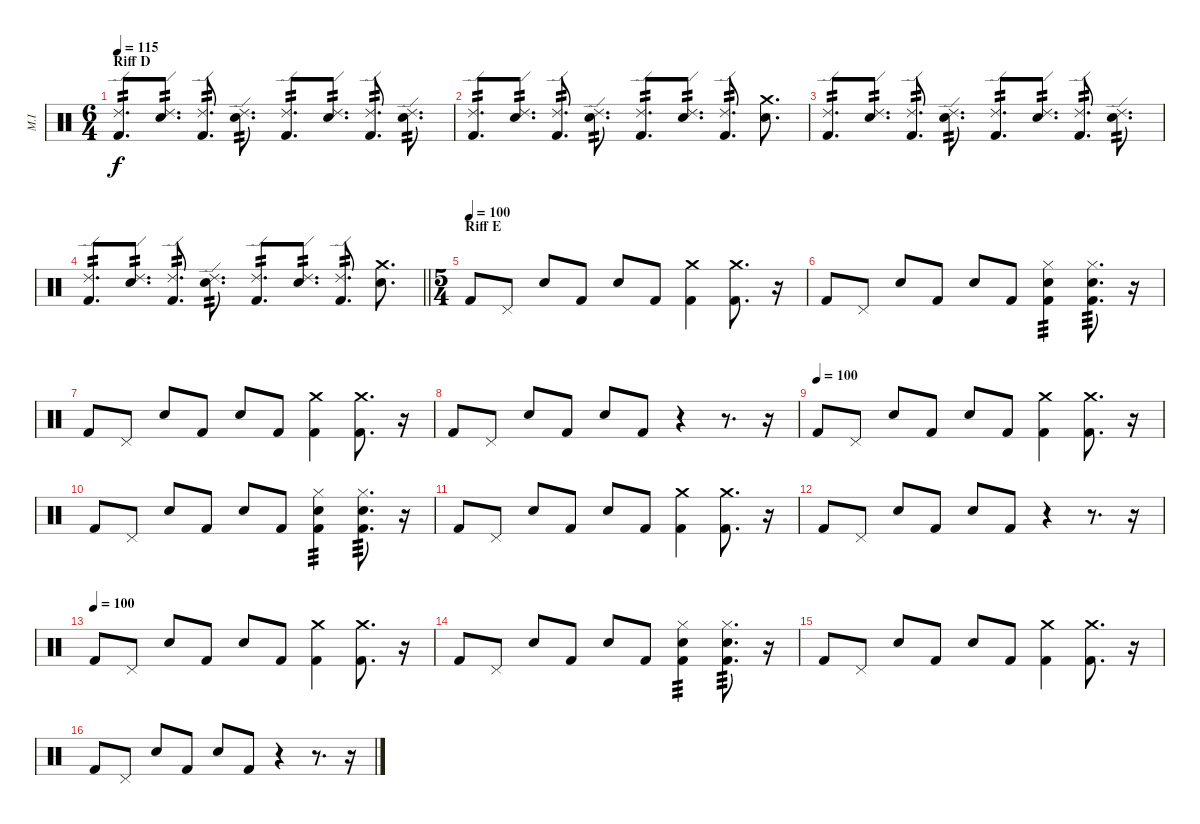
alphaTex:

\track ("M.I" "M.I") {instrument percussion}
\staff {score}
\articulation defaults
\ts (6 4)
\section ("" "Riff D")
\tempo 115
\clef neutral
\ks c
("Ride (edge) 2" "Kick (hit) 2").8{d tp 2 dy f} ("Ride (edge) 2" "Snare (hit) 2").8{d tp 2} ("Ride (edge) 2" "Kick (hit) 2").8{d tp 2} ("Ride (edge) 2" "Snare (hit) 2").8{d tp 2} ("Ride (edge) 2" "Kick (hit) 2").8{d tp 2} ("Ride (edge) 2" "Snare (hit) 2").8{d tp 2} ("Ride (edge) 2" "Kick (hit) 2").8{d tp 2} ("Ride (edge) 2" "Snare (hit) 2").8{d tp 2} |
("Ride (edge) 2" "Kick (hit) 2").8{d tp 2} ("Ride (edge) 2" "Snare (hit) 2").8{d tp 2} ("Ride (edge) 2" "Kick (hit) 2").8{d tp 2} ("Ride (edge) 2" "Snare (hit) 2").8{d tp 2} ("Ride (edge) 2" "Kick (hit) 2").8{d tp 2} ("Ride (edge) 2" "Snare (hit) 2").8{d tp 2} ("Ride (edge) 2" "Kick (hit) 2").8{d tp 2} ("Crash medium (hit)" "Snare (hit) 2").8{d} |
("Ride (edge) 2" "Kick (hit) 2").8{d tp 2} ("Ride (edge) 2" "Snare (hit) 2").8{d tp 2} ("Ride (edge) 2" "Kick (hit) 2").8{d tp 2} ("Ride (edge) 2" "Snare (hit) 2").8{d tp 2} ("Ride (edge) 2" "Kick (hit) 2").8{d tp 2} ("Ride (edge) 2" "Snare (hit) 2").8{d tp 2} ("Ride (edge) 2" "Kick (hit) 2").8{d tp 2} ("Ride (edge) 2" "Snare (hit) 2").8{d tp 2} |
\barLineRight lightlight
("Ride (edge) 2" "Kick (hit) 2").8{d tp 2} ("Ride (edge) 2" "Snare (hit) 2").8{d tp 2} ("Ride (edge) 2" "Kick (hit) 2").8{d tp 2} ("Ride (edge) 2" "Snare (hit) 2").8{d tp 2} ("Ride (edge) 2" "Kick (hit) 2").8{d tp 2} ("Ride (edge) 2" "Snare (hit) 2").8{d tp 2} ("Ride (edge) 2" "Kick (hit) 2").8{d tp 2} ("Crash medium (hit)" "Snare (hit) 2").8{d} |
\ts (5 4)
\section ("" "Riff E")
\tempo (100)
"Kick (hit) 2".8 "Pedal Hi-Hat (hit)".8 "Snare (hit) 2".8 "Kick (hit) 2".8 "Snare (hit) 2".8 "Kick (hit) 2".8 ("Crash medium (hit)" "Kick (hit) 2").4 ("Crash medium (hit)" "Kick (hit) 2").8{d} r.16 |
"Kick (hit) 2".8 "Pedal Hi-Hat (hit)".8 "Snare (hit) 2".8 "Kick (hit) 2".8 "Snare (hit) 2".8 "Kick (hit) 2".8 ("Hi-Hat (closed)" "Snare (hit) 2" "Kick (hit) 2").4{tp 3} ("Hi-Hat (closed)" "Snare (hit) 2" "Kick (hit) 2").8{d tp 3} r.16 |
"Kick (hit) 2".8 "Pedal Hi-Hat (hit)".8 "Snare (hit) 2".8 "Kick (hit) 2".8 "Snare (hit) 2".8 "Kick (hit) 2".8 ("Crash medium (hit)" "Kick (hit) 2").4 ("Crash medium (hit)" "Kick (hit) 2").8{d} r.16 |
"Kick (hit) 2".8 "Pedal Hi-Hat (hit)".8 "Snare (hit) 2".8 "Kick (hit) 2".8 "Snare (hit) 2".8 "Kick (hit) 2".8 r.4 r.8{d} r.16 |
\tempo (100)
"Kick (hit) 2".8 "Pedal Hi-Hat (hit)".8 "Snare (hit) 2".8 "Kick (hit) 2".8 "Snare (hit) 2".8 "Kick (hit) 2".8 ("Crash medium (hit)" "Kick (hit) 2").4 ("Crash medium (hit)" "Kick (hit) 2").8{d} r.16 |
"Kick (hit) 2".8 "Pedal Hi-Hat (hit)".8 "Snare (hit) 2".8 "Kick (hit) 2".8 "Snare (hit) 2".8 "Kick (hit) 2".8 ("Hi-Hat (closed)" "Snare (hit) 2" "Kick (hit) 2").4{tp 3} ("Hi-Hat (closed)" "Snare (hit) 2" "Kick (hit) 2").8{d tp 3} r.16 |
"Kick (hit) 2".8 "Pedal Hi-Hat (hit)".8 "Snare (hit) 2".8 "Kick (hit) 2".8 "Snare (hit) 2".8 "Kick (hit) 2".8 ("Crash medium (hit)" "Kick (hit) 2").4 ("Crash medium (hit)" "Kick (hit) 2").8{d} r.16 |
"Kick (hit) 2".8 "Pedal Hi-Hat (hit)".8 "Snare (hit) 2".8 "Kick (hit) 2".8 "Snare (hit) 2".8 "Kick (hit) 2".8 r.4 r.8{d} r.16 |
\tempo (100)
"Kick (hit) 2".8 "Pedal Hi-Hat (hit)".8 "Snare (hit) 2".8 "Kick (hit) 2".8 "Snare (hit) 2".8 "Kick (hit) 2".8 ("Crash medium (hit)" "Kick (hit) 2").4 ("Crash medium (hit)" "Kick (hit) 2").8{d} r.16 |
"Kick (hit) 2".8 "Pedal Hi-Hat (hit)".8 "Snare (hit) 2".8 "Kick (hit) 2".8 "Snare (hit) 2".8 "Kick (hit) 2".8 ("Hi-Hat (closed)" "Snare (hit) 2" "Kick (hit) 2").4{tp 3} ("Hi-Hat (closed)" "Snare (hit) 2" "Kick (hit) 2").8{d tp 3} r.16 |
"Kick (hit) 2".8 "Pedal Hi-Hat (hit)".8 "Snare (hit) 2".8 "Kick (hit) 2".8 "Snare (hit) 2".8 "Kick (hit) 2".8 ("Crash medium (hit)" "Kick (hit) 2").4 ("Crash medium (hit)" "Kick (hit) 2").8{d} r.16 |
"Kick (hit) 2".8 "Pedal Hi-Hat (hit)".8 "Snare (hit) 2".8 "Kick (hit) 2".8 "Snare (hit) 2".8 "Kick (hit) 2".8 r.4 r.8{d} r.16
